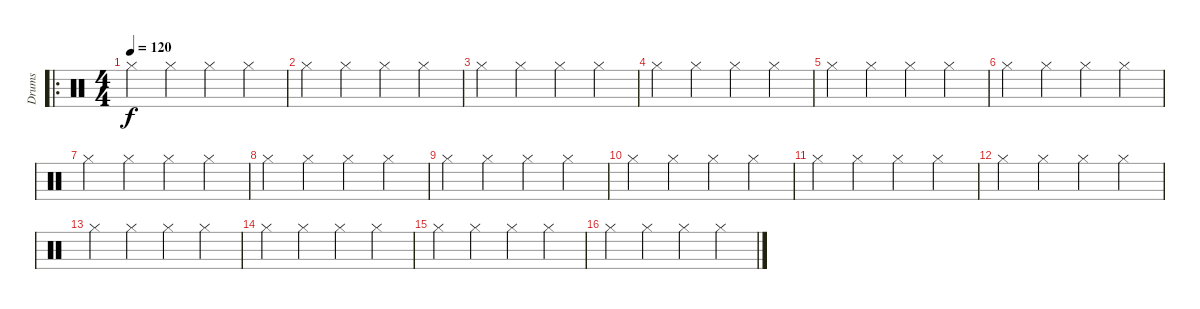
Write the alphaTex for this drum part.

\track ("Drums" "Drums") {instrument percussion}
\staff {score}
\articulation defaults
\ro
\ts (4 4)
\tempo 120
\clef neutral
\ks c "Hi-Hat (closed)".4{dy f} "Hi-Hat (closed)".4 "Hi-Hat (closed)".4 "Hi-Hat (closed)".4
|
"Hi-Hat (closed)".4 "Hi-Hat (closed)".4 "Hi-Hat (closed)".4 "Hi-Hat (closed)".4 |
"Hi-Hat (closed)".4 "Hi-Hat (closed)".4 "Hi-Hat (closed)".4 "Hi-Hat (closed)".4 |
"Hi-Hat (closed)".4 "Hi-Hat (closed)".4 "Hi-Hat (closed)".4 "Hi-Hat (closed)".4 |
"Hi-Hat (closed)".4 "Hi-Hat (closed)".4 "Hi-Hat (closed)".4 "Hi-Hat (closed)".4 |
"Hi-Hat (closed)".4 "Hi-Hat (closed)".4 "Hi-Hat (closed)".4 "Hi-Hat (closed)".4 |
"Hi-Hat (closed)".4 "Hi-Hat (closed)".4 "Hi-Hat (closed)".4 "Hi-Hat (closed)".4 |
"Hi-Hat (closed)".4 "Hi-Hat (closed)".4 "Hi-Hat (closed)".4 "Hi-Hat (closed)".4 |
"Hi-Hat (closed)".4 "Hi-Hat (closed)".4 "Hi-Hat (closed)".4 "Hi-Hat (closed)".4 |
"Hi-Hat (closed)".4 "Hi-Hat (closed)".4 "Hi-Hat (closed)".4 "Hi-Hat (closed)".4 |
"Hi-Hat (closed)".4 "Hi-Hat (closed)".4 "Hi-Hat (closed)".4 "Hi-Hat (closed)".4 |
"Hi-Hat (closed)".4 "Hi-Hat (closed)".4 "Hi-Hat (closed)".4 "Hi-Hat (closed)".4 |
"Hi-Hat (closed)".4 "Hi-Hat (closed)".4 "Hi-Hat (closed)".4 "Hi-Hat (closed)".4 |
"Hi-Hat (closed)".4 "Hi-Hat (closed)".4 "Hi-Hat (closed)".4 "Hi-Hat (closed)".4 |
"Hi-Hat (closed)".4 "Hi-Hat (closed)".4 "Hi-Hat (closed)".4 "Hi-Hat (closed)".4 |
"Hi-Hat (closed)".4 "Hi-Hat (closed)".4 "Hi-Hat (closed)".4 "Hi-Hat (closed)".4
